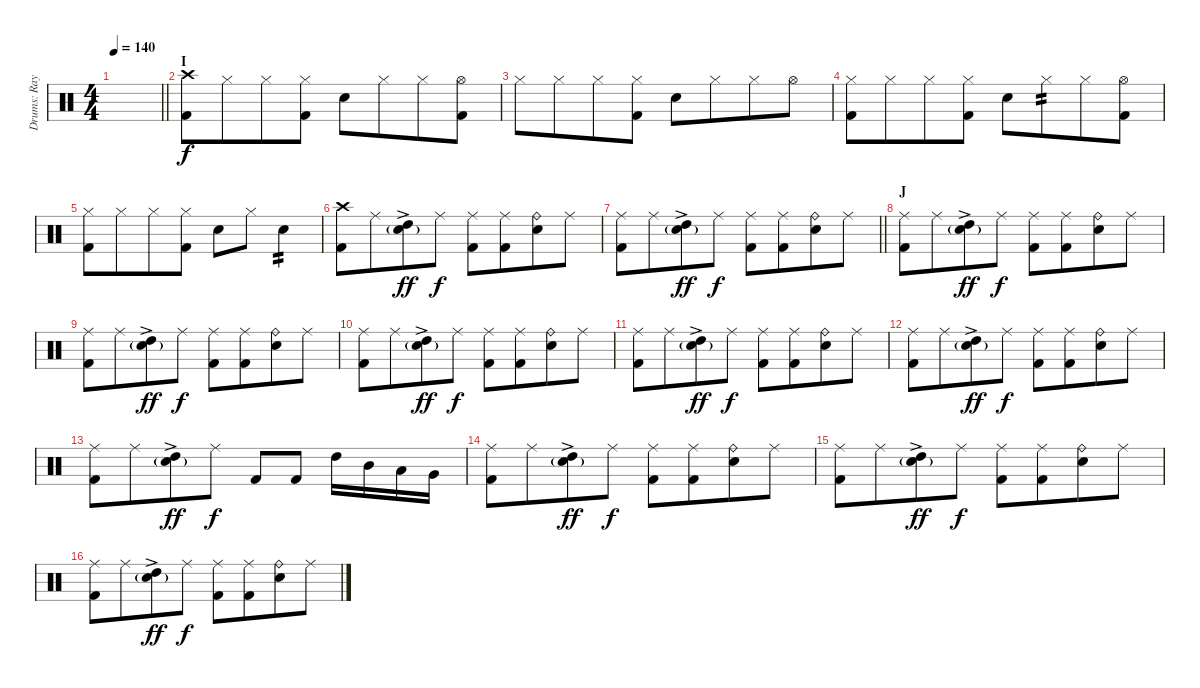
\track ("Drums: Ray Cooper" "Drums: Ray") {instrument percussion}
\staff {score}
\articulation defaults
\ts (4 4)
\tempo 140
\clef neutral
\barLineRight lightlight
\ks c
|
\section ("" "I")
("Crash high (hit)" "Kick (hit) 2").8 "Hi-Hat (closed)".8{beam merge} "Hi-Hat (closed)".8 ("Hi-Hat (closed)" "Kick (hit) 2").8 "Snare (hit) 2".8 "Hi-Hat (closed)".8{beam merge} "Hi-Hat (closed)".8 ("Hi-Hat (open)" "Kick (hit) 2").8 |
"Hi-Hat (closed)".8 "Hi-Hat (closed)".8{beam merge} "Hi-Hat (closed)".8 ("Hi-Hat (closed)" "Kick (hit) 2").8 "Snare (hit) 2".8 "Hi-Hat (closed)".8{beam merge} "Hi-Hat (closed)".8 "Hi-Hat (open)".8 |
("Hi-Hat (closed)" "Kick (hit) 2").8 "Hi-Hat (closed)".8{beam merge} "Hi-Hat (closed)".8 ("Hi-Hat (closed)" "Kick (hit) 2").8 "Snare (hit) 2".8 "Hi-Hat (closed)".8{tp 2 beam merge} "Hi-Hat (closed)".8 ("Hi-Hat (open)" "Kick (hit) 2").8 |
("Hi-Hat (closed)" "Kick (hit) 2").8 "Hi-Hat (closed)".8{beam merge} "Hi-Hat (closed)".8 ("Hi-Hat (closed)" "Kick (hit) 2").8 "Snare (hit) 2".8 "Hi-Hat (closed)".8 "Snare (hit) 2".4{tp 2} |
("Crash high (hit)" "Kick (hit) 2").8 "Ride (middle)".8{beam merge} ("Electric Snare (hit)"{g} "High Tom (hit)"{ac}).8{dy ff} "Ride (middle)".8{dy f} ("Ride (middle)" "Kick (hit) 2").8 ("Ride (middle)" "Kick (hit) 2").8{beam merge} ("Ride (bell)" "Snare (hit) 2").8 "Ride (middle)".8 |
\barLineRight lightlight
("Ride (middle)" "Kick (hit) 2").8 "Ride (middle)".8{beam merge} ("Electric Snare (hit)"{g} "High Tom (hit)"{ac}).8{dy ff} "Ride (middle)".8{dy f} ("Ride (middle)" "Kick (hit) 2").8 ("Ride (middle)" "Kick (hit) 2").8{beam merge} ("Ride (bell)" "Snare (hit) 2").8 "Ride (middle)".8 |
\section ("" "J")
("Ride (middle)" "Kick (hit) 2").8 "Ride (middle)".8{beam merge} ("Electric Snare (hit)"{g} "High Tom (hit)"{ac}).8{dy ff} "Ride (middle)".8{dy f} ("Ride (middle)" "Kick (hit) 2").8 ("Ride (middle)" "Kick (hit) 2").8{beam merge} ("Ride (bell)" "Snare (hit) 2").8 "Ride (middle)".8 |
("Ride (middle)" "Kick (hit) 2").8 "Ride (middle)".8{beam merge} ("Electric Snare (hit)"{g} "High Tom (hit)"{ac}).8{dy ff} "Ride (middle)".8{dy f} ("Ride (middle)" "Kick (hit) 2").8 ("Ride (middle)" "Kick (hit) 2").8{beam merge} ("Ride (bell)" "Snare (hit) 2").8 "Ride (middle)".8 |
("Ride (middle)" "Kick (hit) 2").8 "Ride (middle)".8{beam merge} ("Electric Snare (hit)"{g} "High Tom (hit)"{ac}).8{dy ff} "Ride (middle)".8{dy f} ("Ride (middle)" "Kick (hit) 2").8 ("Ride (middle)" "Kick (hit) 2").8{beam merge} ("Ride (bell)" "Snare (hit) 2").8 "Ride (middle)".8 |
("Ride (middle)" "Kick (hit) 2").8 "Ride (middle)".8{beam merge} ("Electric Snare (hit)"{g} "High Tom (hit)"{ac}).8{dy ff} "Ride (middle)".8{dy f} ("Ride (middle)" "Kick (hit) 2").8 ("Ride (middle)" "Kick (hit) 2").8{beam merge} ("Ride (bell)" "Snare (hit) 2").8 "Ride (middle)".8 |
("Ride (middle)" "Kick (hit) 2").8 "Ride (middle)".8{beam merge} ("Electric Snare (hit)"{g} "High Tom (hit)"{ac}).8{dy ff} "Ride (middle)".8{dy f} ("Ride (middle)" "Kick (hit) 2").8 ("Ride (middle)" "Kick (hit) 2").8{beam merge} ("Ride (bell)" "Snare (hit) 2").8 "Ride (middle)".8 |
("Ride (middle)" "Kick (hit) 2").8 "Ride (middle)".8{beam merge} ("Electric Snare (hit)"{g} "High Tom (hit)"{ac}).8{dy ff} "Ride (middle)".8{dy f} "Kick (hit) 2".8 "Kick (hit) 2".8 "High Tom (hit)".16 "Mid Tom (hit)".16 "Low Tom (hit)".16 "Very Low Tom (hit)".16 |
("Ride (middle)" "Kick (hit) 2").8 "Ride (middle)".8{beam merge} ("Electric Snare (hit)"{g} "High Tom (hit)"{ac}).8{dy ff} "Ride (middle)".8{dy f} ("Ride (middle)" "Kick (hit) 2").8 ("Ride (middle)" "Kick (hit) 2").8{beam merge} ("Ride (bell)" "Snare (hit) 2").8 "Ride (middle)".8 |
("Ride (middle)" "Kick (hit) 2").8 "Ride (middle)".8{beam merge} ("Electric Snare (hit)"{g} "High Tom (hit)"{ac}).8{dy ff} "Ride (middle)".8{dy f} ("Ride (middle)" "Kick (hit) 2").8 ("Ride (middle)" "Kick (hit) 2").8{beam merge} ("Ride (bell)" "Snare (hit) 2").8 "Ride (middle)".8 |
("Ride (middle)" "Kick (hit) 2").8 "Ride (middle)".8{beam merge} ("Electric Snare (hit)"{g} "High Tom (hit)"{ac}).8{dy ff} "Ride (middle)".8{dy f} ("Ride (middle)" "Kick (hit) 2").8 ("Ride (middle)" "Kick (hit) 2").8{beam merge} ("Ride (bell)" "Snare (hit) 2").8 "Ride (middle)".8
